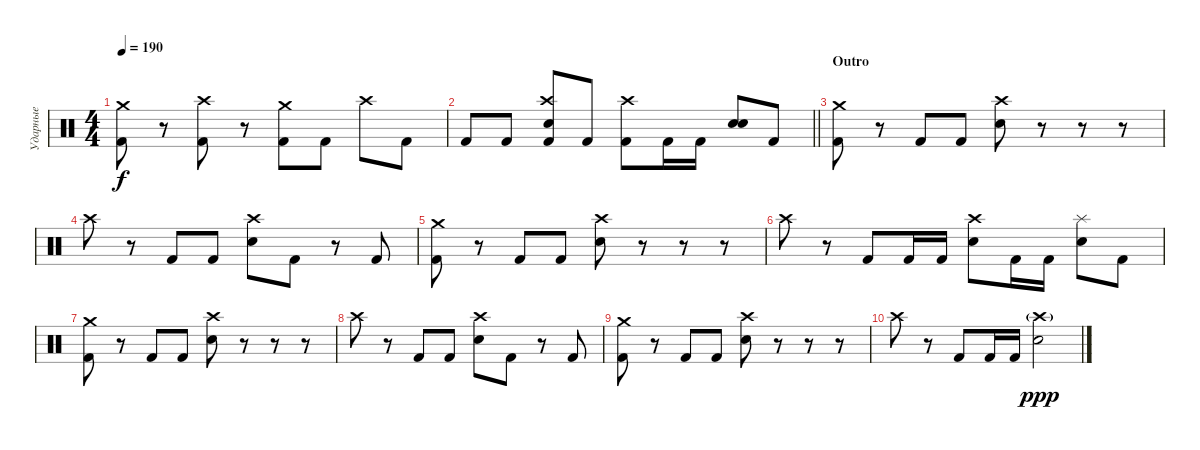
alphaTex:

\track ("Ударные" "Ударные") {instrument percussion}
\staff {score}
\articulation defaults
\ts (4 4)
\tempo 190
\clef neutral
\ks c
("Crash medium (hit)" "Kick (hit) 2").8{dy f} r.8 ("Crash high (hit)" "Kick (hit) 2").8 r.8 ("Crash medium (hit)" "Kick (hit) 2").8 "Kick (hit) 2".8 "Crash high (hit)".8 "Kick (hit) 2".8 |
\barLineRight lightlight "Kick (hit) 2".8 "Kick (hit) 2".8
("Crash high (hit)" "Electric Snare (hit)" "Kick (hit) 2").8 "Kick (hit) 2".8 ("Crash high (hit)" "Kick (hit) 2").8 "Kick (hit) 2".16 "Kick (hit) 2".16 ("Electric Snare (hit)" "Electric Snare (hit)").8 "Kick (hit) 2".8 |
\section ("" "Outro")
("Crash medium (hit)" "Kick (hit) 2").8 r.8 "Kick (hit) 2".8 "Kick (hit) 2".8 ("Crash high (hit)" "Electric Snare (hit)").8 r.8 r.8 r.8 |
"Crash high (hit)".8 r.8 "Kick (hit) 2".8 "Kick (hit) 2".8 ("Crash high (hit)" "Electric Snare (hit)").8 "Kick (hit) 2".8 r.8 "Kick (hit) 2".8 |
("Crash medium (hit)" "Kick (hit) 2").8 r.8 "Kick (hit) 2".8 "Kick (hit) 2".8 ("Crash high (hit)" "Electric Snare (hit)").8 r.8 r.8 r.8 |
"Crash high (hit)".8 r.8 "Kick (hit) 2".8 "Kick (hit) 2".16 "Kick (hit) 2".16 ("Crash high (hit)" "Electric Snare (hit)").8 "Kick (hit) 2".16 "Kick (hit) 2".16 ("Splash (hit)" "Electric Snare (hit)").8 "Kick (hit) 2".8 |
("Crash medium (hit)" "Kick (hit) 2").8 r.8 "Kick (hit) 2".8 "Kick (hit) 2".8 ("Crash high (hit)" "Electric Snare (hit)").8 r.8 r.8 r.8 |
"Crash high (hit)".8 r.8 "Kick (hit) 2".8 "Kick (hit) 2".8 ("Crash high (hit)" "Electric Snare (hit)").8 "Kick (hit) 2".8 r.8 "Kick (hit) 2".8 |
("Crash medium (hit)" "Kick (hit) 2").8 r.8 "Kick (hit) 2".8 "Kick (hit) 2".8 ("Crash high (hit)" "Electric Snare (hit)").8 r.8 r.8 r.8 |
"Crash high (hit)".8 r.8 "Kick (hit) 2".8 "Kick (hit) 2".16 "Kick (hit) 2".16 ("Crash high (hit)"{g} "Electric Snare (hit)").2{dy ppp}
